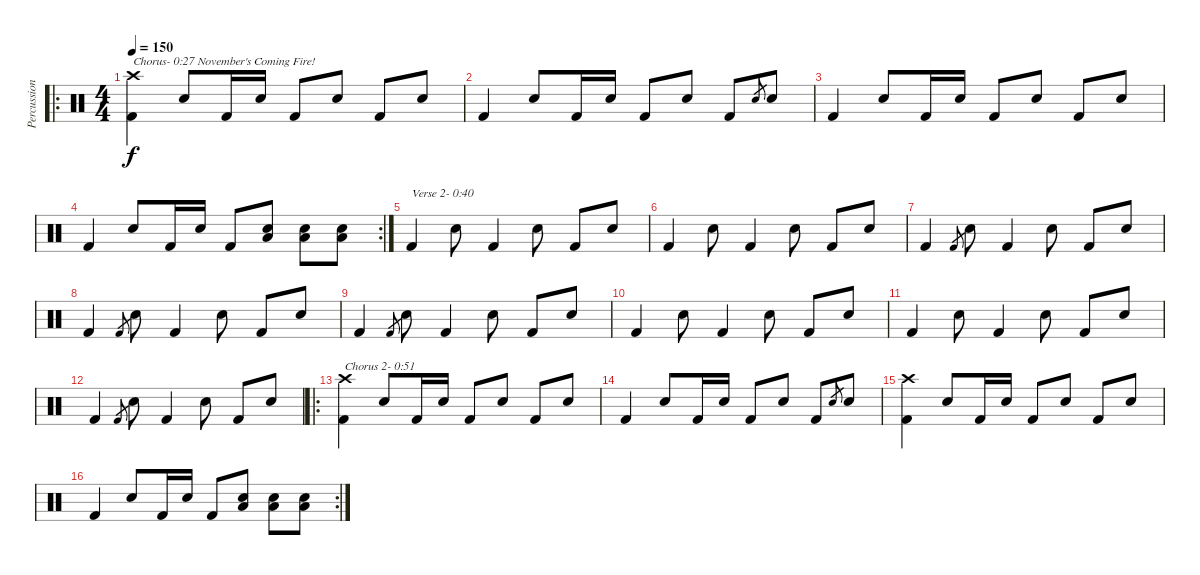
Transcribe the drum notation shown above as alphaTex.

\track ("Percussion" "Percussion") {instrument percussion}
\staff {score}
\articulation defaults
\ro
\ts (4 4)
\tempo 150
\clef neutral
\ks c
("Crash high (hit)" "Kick (hit) 2").4{txt "Chorus- 0:27 November's Coming Fire!" dy f} "Snare (hit) 2".8 "Kick (hit) 2".16 "Snare (hit) 2".16 "Kick (hit) 2".8 "Snare (hit) 2".8 "Kick (hit) 2".8 "Snare (hit) 2".8 |
"Kick (hit) 2".4 "Snare (hit) 2".8 "Kick (hit) 2".16 "Snare (hit) 2".16 "Kick (hit) 2".8 "Snare (hit) 2".8 "Kick (hit) 2".8 "Snare (hit) 2".8{gr} "Snare (hit) 2".8 |
"Kick (hit) 2".4 "Snare (hit) 2".8 "Kick (hit) 2".16 "Snare (hit) 2".16 "Kick (hit) 2".8 "Snare (hit) 2".8 "Kick (hit) 2".8 "Snare (hit) 2".8 |
\rc 2 "Kick (hit) 2".4 "Snare (hit) 2".8 "Kick (hit) 2".16 "Snare (hit) 2".16 "Kick (hit) 2".8
("Low Floor Tom (hit)" "Snare (hit) 2").8 ("Low Floor Tom (hit)" "Snare (hit) 2").8 ("Low Floor Tom (hit)" "Snare (hit) 2").8 |
"Kick (hit) 2".4{txt "Verse 2- 0:40"} "Snare (hit) 2".8 "Kick (hit) 2".4 "Snare (hit) 2".8 "Kick (hit) 2".8 "Snare (hit) 2".8 |
"Kick (hit) 2".4 "Snare (hit) 2".8 "Kick (hit) 2".4 "Snare (hit) 2".8 "Kick (hit) 2".8 "Snare (hit) 2".8 |
"Kick (hit) 2".4 "Kick (hit) 2".8{gr} "Snare (hit) 2".8 "Kick (hit) 2".4 "Snare (hit) 2".8 "Kick (hit) 2".8 "Snare (hit) 2".8 |
"Kick (hit) 2".4 "Kick (hit) 2".8{gr} "Snare (hit) 2".8 "Kick (hit) 2".4 "Snare (hit) 2".8 "Kick (hit) 2".8 "Snare (hit) 2".8 |
"Kick (hit) 2".4 "Kick (hit) 2".8{gr} "Snare (hit) 2".8 "Kick (hit) 2".4 "Snare (hit) 2".8 "Kick (hit) 2".8 "Snare (hit) 2".8 |
"Kick (hit) 2".4 "Snare (hit) 2".8 "Kick (hit) 2".4 "Snare (hit) 2".8 "Kick (hit) 2".8 "Snare (hit) 2".8 |
"Kick (hit) 2".4 "Snare (hit) 2".8 "Kick (hit) 2".4 "Snare (hit) 2".8 "Kick (hit) 2".8 "Snare (hit) 2".8 |
"Kick (hit) 2".4 "Kick (hit) 2".8{gr} "Snare (hit) 2".8 "Kick (hit) 2".4 "Snare (hit) 2".8 "Kick (hit) 2".8 "Snare (hit) 2".8 |
\ro
("Crash high (hit)" "Kick (hit) 2").4{txt "Chorus 2- 0:51"} "Snare (hit) 2".8 "Kick (hit) 2".16 "Snare (hit) 2".16 "Kick (hit) 2".8 "Snare (hit) 2".8 "Kick (hit) 2".8 "Snare (hit) 2".8 |
"Kick (hit) 2".4 "Snare (hit) 2".8 "Kick (hit) 2".16 "Snare (hit) 2".16 "Kick (hit) 2".8 "Snare (hit) 2".8 "Kick (hit) 2".8 "Snare (hit) 2".8{gr} "Snare (hit) 2".8 |
("Crash high (hit)" "Kick (hit) 2").4 "Snare (hit) 2".8 "Kick (hit) 2".16 "Snare (hit) 2".16 "Kick (hit) 2".8 "Snare (hit) 2".8 "Kick (hit) 2".8 "Snare (hit) 2".8 |
\rc 2 "Kick (hit) 2".4 "Snare (hit) 2".8 "Kick (hit) 2".16 "Snare (hit) 2".16 "Kick (hit) 2".8
("Low Floor Tom (hit)" "Snare (hit) 2").8 ("Low Floor Tom (hit)" "Snare (hit) 2").8 ("Low Floor Tom (hit)" "Snare (hit) 2").8
